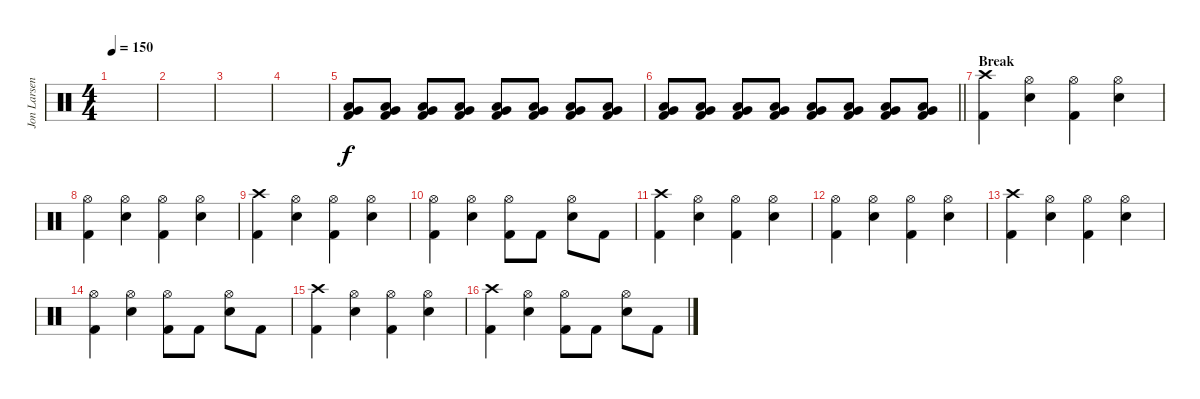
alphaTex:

\track ("Jon Larsen" "Jon Larsen") {instrument percussion}
\staff {score}
\articulation defaults
\ts (4 4)
\tempo 150
\clef neutral
\ks c
|
|
|
|
("Very Low Tom (hit)" "Low Floor Tom (hit)" "Kick (hit) 2").8 ("Very Low Tom (hit)" "Low Floor Tom (hit)" "Kick (hit) 2").8 ("Very Low Tom (hit)" "Low Floor Tom (hit)" "Kick (hit) 2").8 ("Very Low Tom (hit)" "Low Floor Tom (hit)" "Kick (hit) 2").8 ("Very Low Tom (hit)" "Low Floor Tom (hit)" "Kick (hit) 2").8 ("Very Low Tom (hit)" "Low Floor Tom (hit)" "Kick (hit) 2").8 ("Very Low Tom (hit)" "Low Floor Tom (hit)" "Kick (hit) 2").8 ("Very Low Tom (hit)" "Low Floor Tom (hit)" "Kick (hit) 2").8 |
\barLineRight lightlight
("Very Low Tom (hit)" "Low Floor Tom (hit)" "Kick (hit) 2").8 ("Very Low Tom (hit)" "Low Floor Tom (hit)" "Kick (hit) 2").8 ("Very Low Tom (hit)" "Low Floor Tom (hit)" "Kick (hit) 2").8 ("Very Low Tom (hit)" "Low Floor Tom (hit)" "Kick (hit) 2").8 ("Very Low Tom (hit)" "Low Floor Tom (hit)" "Kick (hit) 2").8 ("Very Low Tom (hit)" "Low Floor Tom (hit)" "Kick (hit) 2").8 ("Very Low Tom (hit)" "Low Floor Tom (hit)" "Kick (hit) 2").8 ("Very Low Tom (hit)" "Low Floor Tom (hit)" "Kick (hit) 2").8 |
\section ("" "Break")
("Crash high (hit)" "Kick (hit) 2").4 ("Hi-Hat (open)" "Electric Snare (hit)").4 ("Hi-Hat (open)" "Kick (hit) 2").4 ("Hi-Hat (open)" "Electric Snare (hit)").4 |
("Hi-Hat (open)" "Kick (hit) 2").4 ("Hi-Hat (open)" "Electric Snare (hit)").4 ("Hi-Hat (open)" "Kick (hit) 2").4 ("Hi-Hat (open)" "Electric Snare (hit)").4 |
("Crash high (hit)" "Kick (hit) 2").4 ("Hi-Hat (open)" "Electric Snare (hit)").4 ("Hi-Hat (open)" "Kick (hit) 2").4 ("Hi-Hat (open)" "Electric Snare (hit)").4 |
("Hi-Hat (open)" "Kick (hit) 2").4 ("Hi-Hat (open)" "Electric Snare (hit)").4 ("Hi-Hat (open)" "Kick (hit) 2").8 "Kick (hit) 2".8 ("Hi-Hat (open)" "Electric Snare (hit)").8 "Kick (hit) 2".8 |
("Crash high (hit)" "Kick (hit) 2").4 ("Hi-Hat (open)" "Electric Snare (hit)").4 ("Hi-Hat (open)" "Kick (hit) 2").4 ("Hi-Hat (open)" "Electric Snare (hit)").4 |
("Hi-Hat (open)" "Kick (hit) 2").4 ("Hi-Hat (open)" "Electric Snare (hit)").4 ("Hi-Hat (open)" "Kick (hit) 2").4 ("Hi-Hat (open)" "Electric Snare (hit)").4 |
("Crash high (hit)" "Kick (hit) 2").4 ("Hi-Hat (open)" "Electric Snare (hit)").4 ("Hi-Hat (open)" "Kick (hit) 2").4 ("Hi-Hat (open)" "Electric Snare (hit)").4 |
("Hi-Hat (open)" "Kick (hit) 2").4 ("Hi-Hat (open)" "Electric Snare (hit)").4 ("Hi-Hat (open)" "Kick (hit) 2").8 "Kick (hit) 2".8 ("Hi-Hat (open)" "Electric Snare (hit)").8 "Kick (hit) 2".8 |
("Crash high (hit)" "Kick (hit) 2").4 ("Hi-Hat (open)" "Electric Snare (hit)").4 ("Hi-Hat (open)" "Kick (hit) 2").4 ("Hi-Hat (open)" "Electric Snare (hit)").4 |
("Crash high (hit)" "Kick (hit) 2").4 ("Hi-Hat (open)" "Electric Snare (hit)").4 ("Hi-Hat (open)" "Kick (hit) 2").8 "Kick (hit) 2".8 ("Hi-Hat (open)" "Electric Snare (hit)").8 "Kick (hit) 2".8
